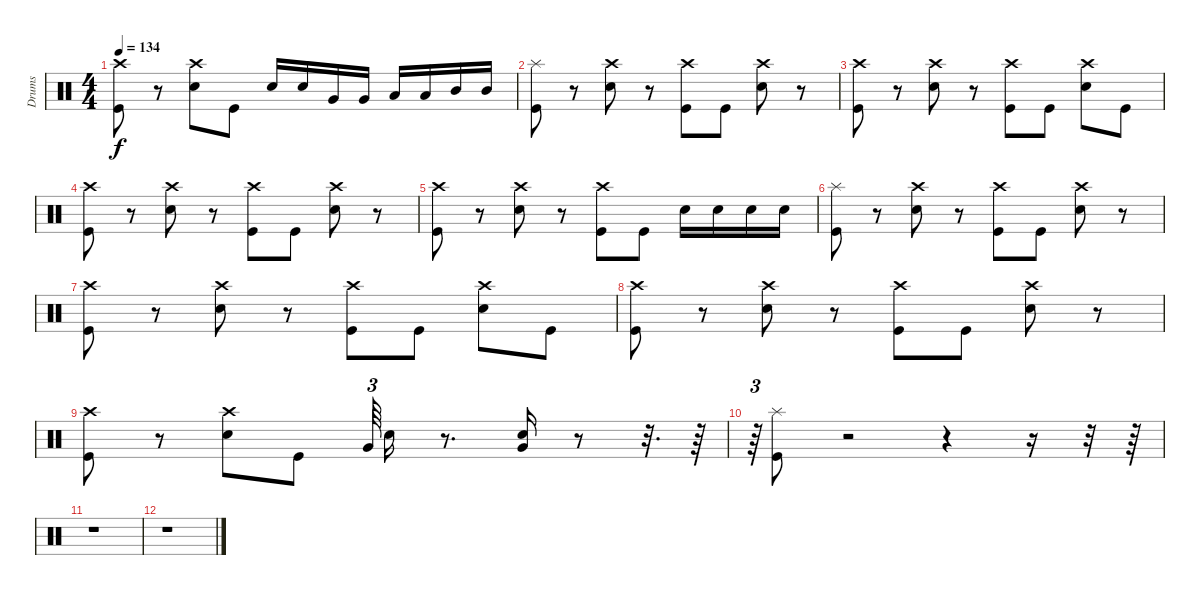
\track ("Drums" "Drums") {instrument percussion}
\staff {score}
\articulation defaults
\ts (4 4)
\tempo 134
\clef neutral
\ks c
("Kick (hit)" "Crash high (hit)").8{dy f} r.8 ("Snare (hit) 2" "Crash high (hit)").8 "Kick (hit)".8 "Snare (hit) 2".16 "Snare (hit) 2".16 "Very Low Tom (hit)".16 "Very Low Tom (hit)".16 "Low Tom (hit)".16 "Low Tom (hit)".16 "Mid Tom (hit)".16 "Mid Tom (hit)".16 |
("Kick (hit)" "Splash (hit)").8 r.8 ("Crash high (hit)" "Snare (hit) 2").8 r.8 ("Crash high (hit)" "Kick (hit)").8 "Kick (hit)".8 ("Crash high (hit)" "Snare (hit) 2").8 r.8 |
("Crash high (hit)" "Kick (hit)").8 r.8 ("Crash high (hit)" "Snare (hit) 2").8 r.8 ("Crash high (hit)" "Kick (hit)").8 "Kick (hit)".8 ("Crash high (hit)" "Snare (hit) 2").8 "Kick (hit)".8 |
("Crash high (hit)" "Kick (hit)").8 r.8 ("Crash high (hit)" "Snare (hit) 2").8 r.8 ("Crash high (hit)" "Kick (hit)").8 "Kick (hit)".8 ("Crash high (hit)" "Snare (hit) 2").8 r.8 |
("Crash high (hit)" "Kick (hit)").8 r.8 ("Crash high (hit)" "Snare (hit) 2").8 r.8 ("Crash high (hit)" "Kick (hit)").8 "Kick (hit)".8 "Snare (hit) 2".16 "Snare (hit) 2".16 "Snare (hit) 2".16 "Snare (hit) 2".16 |
("Kick (hit)" "Splash (hit)").8 r.8 ("Crash high (hit)" "Snare (hit) 2").8 r.8 ("Crash high (hit)" "Kick (hit)").8 "Kick (hit)".8 ("Crash high (hit)" "Snare (hit) 2").8 r.8 |
("Crash high (hit)" "Kick (hit)").8 r.8 ("Crash high (hit)" "Snare (hit) 2").8 r.8 ("Crash high (hit)" "Kick (hit)").8 "Kick (hit)".8 ("Crash high (hit)" "Snare (hit) 2").8 "Kick (hit)".8 |
("Crash high (hit)" "Kick (hit)").8 r.8 ("Crash high (hit)" "Snare (hit) 2").8 r.8 ("Crash high (hit)" "Kick (hit)").8 "Kick (hit)".8 ("Crash high (hit)" "Snare (hit) 2").8 r.8 |
("Kick (hit)" "Crash high (hit)").8 r.8 ("Crash high (hit)" "Snare (hit) 2").8 "Kick (hit)".8 "Very Low Tom (hit)".64{tu (3 2)} "Snare (hit) 2".16 r.8{d} ("Very Low Tom (hit)" "Snare (hit) 2").16 r.8 r.32{d} r.64 |
r.64{tu (3 2)} ("Kick (hit)" "Splash (hit)").8 r.2 r.4 r.16 r.32 r.64 |
r.1 |
r.1
